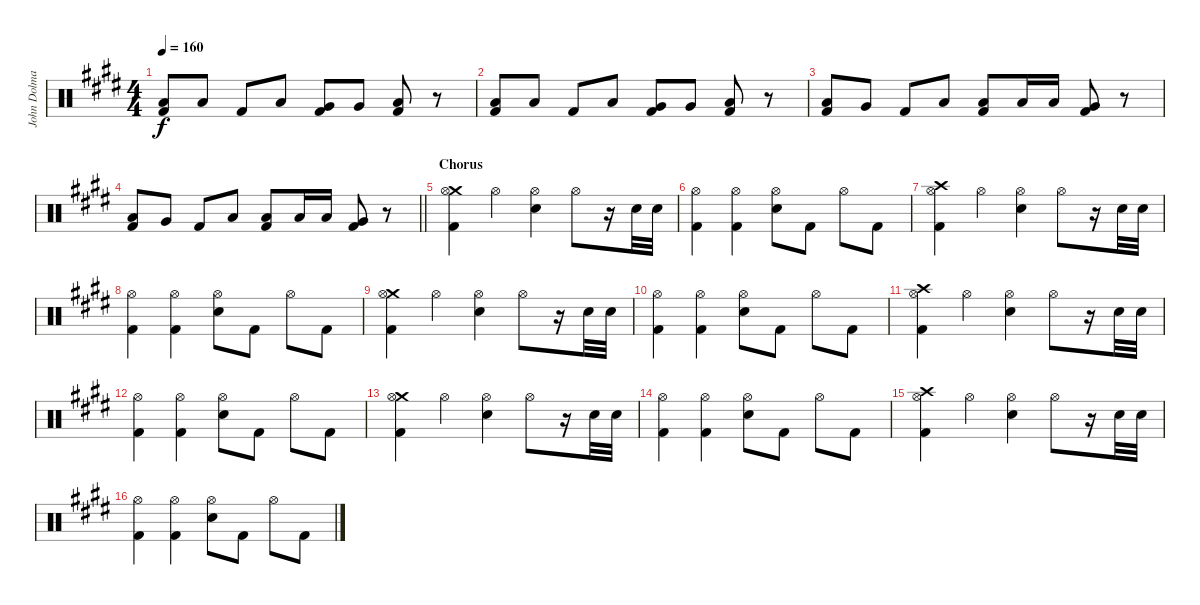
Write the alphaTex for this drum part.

\track ("John Dolmayan [Drums]" "John Dolma") {instrument percussion}
\staff {score}
\articulation defaults
\ts (4 4)
\tempo 160
\clef neutral
\ks c#minor
("Low Floor Tom (hit)" "Kick (hit) 2").8{dy f} "Low Floor Tom (hit)".8 "Kick (hit) 2".8 "Low Tom (hit)".8 ("Very Low Tom (hit)" "Kick (hit) 2").8 "Very Low Tom (hit)".8 ("Low Floor Tom (hit)" "Kick (hit) 2").8 r.8 |
("Low Floor Tom (hit)" "Kick (hit) 2").8 "Low Floor Tom (hit)".8 "Kick (hit) 2".8 "Low Tom (hit)".8 ("Very Low Tom (hit)" "Kick (hit) 2").8 "Very Low Tom (hit)".8 ("Low Floor Tom (hit)" "Kick (hit) 2").8 r.8 |
("Low Floor Tom (hit)" "Kick (hit) 2").8 "Very Low Tom (hit)".8 "Kick (hit) 2".8 "Low Tom (hit)".8 ("Low Floor Tom (hit)" "Kick (hit) 2").8 "Low Floor Tom (hit)".16 "Low Floor Tom (hit)".16 ("Very Low Tom (hit)" "Kick (hit) 2").8 r.8 |
\barLineRight lightlight
("Low Floor Tom (hit)" "Kick (hit) 2").8 "Very Low Tom (hit)".8 "Kick (hit) 2".8 "Low Tom (hit)".8 ("Low Floor Tom (hit)" "Kick (hit) 2").8 "Low Floor Tom (hit)".16 "Low Floor Tom (hit)".16 ("Very Low Tom (hit)" "Kick (hit) 2").8 r.8 |
\section ("" "Chorus")
("Crash medium (hit)" "Hi-Hat (open)" "Kick (hit) 2").4 "Hi-Hat (open)".4 ("Hi-Hat (open)" "Electric Snare (hit)").4 "Hi-Hat (open)".8 r.16 "Electric Snare (hit)".32 "Electric Snare (hit)".32 |
("Hi-Hat (open)" "Kick (hit) 2").4 ("Hi-Hat (open)" "Kick (hit) 2").4 ("Hi-Hat (open)" "Electric Snare (hit)").8 "Kick (hit) 2".8 "Hi-Hat (open)".8 "Kick (hit) 2".8 |
("Crash high (hit)" "Hi-Hat (open)" "Kick (hit) 2").4 "Hi-Hat (open)".4 ("Hi-Hat (open)" "Electric Snare (hit)").4 "Hi-Hat (open)".8 r.16 "Electric Snare (hit)".32 "Electric Snare (hit)".32 |
("Hi-Hat (open)" "Kick (hit) 2").4 ("Hi-Hat (open)" "Kick (hit) 2").4 ("Hi-Hat (open)" "Electric Snare (hit)").8 "Kick (hit) 2".8 "Hi-Hat (open)".8 "Kick (hit) 2".8 |
("Crash medium (hit)" "Hi-Hat (open)" "Kick (hit) 2").4 "Hi-Hat (open)".4 ("Hi-Hat (open)" "Electric Snare (hit)").4 "Hi-Hat (open)".8 r.16 "Electric Snare (hit)".32 "Electric Snare (hit)".32 |
("Hi-Hat (open)" "Kick (hit) 2").4 ("Hi-Hat (open)" "Kick (hit) 2").4 ("Hi-Hat (open)" "Electric Snare (hit)").8 "Kick (hit) 2".8 "Hi-Hat (open)".8 "Kick (hit) 2".8 |
("Crash high (hit)" "Hi-Hat (open)" "Kick (hit) 2").4 "Hi-Hat (open)".4 ("Hi-Hat (open)" "Electric Snare (hit)").4 "Hi-Hat (open)".8 r.16 "Electric Snare (hit)".32 "Electric Snare (hit)".32 |
("Hi-Hat (open)" "Kick (hit) 2").4 ("Hi-Hat (open)" "Kick (hit) 2").4 ("Hi-Hat (open)" "Electric Snare (hit)").8 "Kick (hit) 2".8 "Hi-Hat (open)".8 "Kick (hit) 2".8 |
("Crash medium (hit)" "Hi-Hat (open)" "Kick (hit) 2").4 "Hi-Hat (open)".4 ("Hi-Hat (open)" "Electric Snare (hit)").4 "Hi-Hat (open)".8 r.16 "Electric Snare (hit)".32 "Electric Snare (hit)".32 |
("Hi-Hat (open)" "Kick (hit) 2").4 ("Hi-Hat (open)" "Kick (hit) 2").4 ("Hi-Hat (open)" "Electric Snare (hit)").8 "Kick (hit) 2".8 "Hi-Hat (open)".8 "Kick (hit) 2".8 |
("Crash high (hit)" "Hi-Hat (open)" "Kick (hit) 2").4 "Hi-Hat (open)".4 ("Hi-Hat (open)" "Electric Snare (hit)").4 "Hi-Hat (open)".8 r.16 "Electric Snare (hit)".32 "Electric Snare (hit)".32 |
("Hi-Hat (open)" "Kick (hit) 2").4 ("Hi-Hat (open)" "Kick (hit) 2").4 ("Hi-Hat (open)" "Electric Snare (hit)").8 "Kick (hit) 2".8 "Hi-Hat (open)".8 "Kick (hit) 2".8
